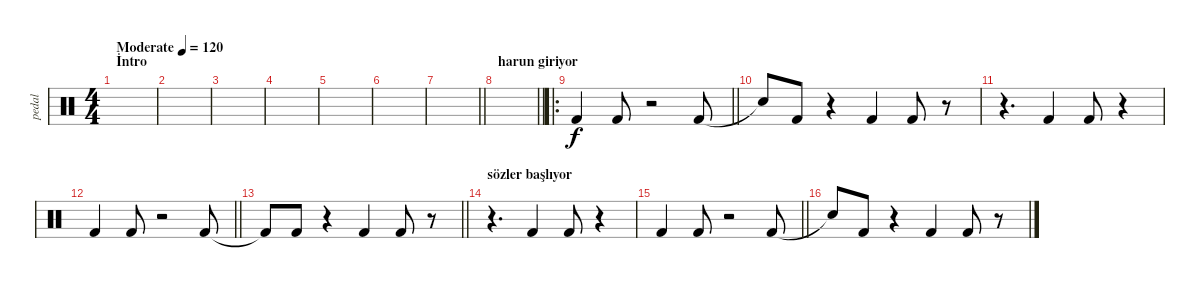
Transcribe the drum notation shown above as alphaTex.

\track ("pedal" "pedal") {instrument percussion}
\staff {score}
\articulation defaults
\ts (4 4)
\section ("" "İntro")
\tempo (120 "Moderate")
\clef neutral
\ks c
|
|
|
|
|
|
\barLineRight lightlight
|
\section ("" "harun giriyor")
\barLineRight lightlight
|
\ro
\barLineRight lightlight "Kick (hit) 2".4 "Kick (hit) 2".8
r.2 "Kick (hit) 2".8 |
"Snare (hit)"{t}.8 "Kick (hit) 2".8 r.4 "Kick (hit) 2".4 "Kick (hit) 2".8 r.8 |
r.4{d} "Kick (hit) 2".4 "Kick (hit) 2".8 r.4 |
\barLineRight lightlight "Kick (hit) 2".4 "Kick (hit) 2".8
r.2 "Kick (hit) 2".8 |
\barLineRight lightlight "Kick (hit) 2"{t}.8 "Kick (hit) 2".8
r.4 "Kick (hit) 2".4 "Kick (hit) 2".8 r.8 |
\section ("" "sözler başlıyor")
r.4{d} "Kick (hit) 2".4 "Kick (hit) 2".8 r.4 |
\barLineRight lightlight "Kick (hit) 2".4 "Kick (hit) 2".8
r.2 "Kick (hit) 2".8 |
"Snare (hit)"{t}.8 "Kick (hit) 2".8 r.4 "Kick (hit) 2".4 "Kick (hit) 2".8 r.8
